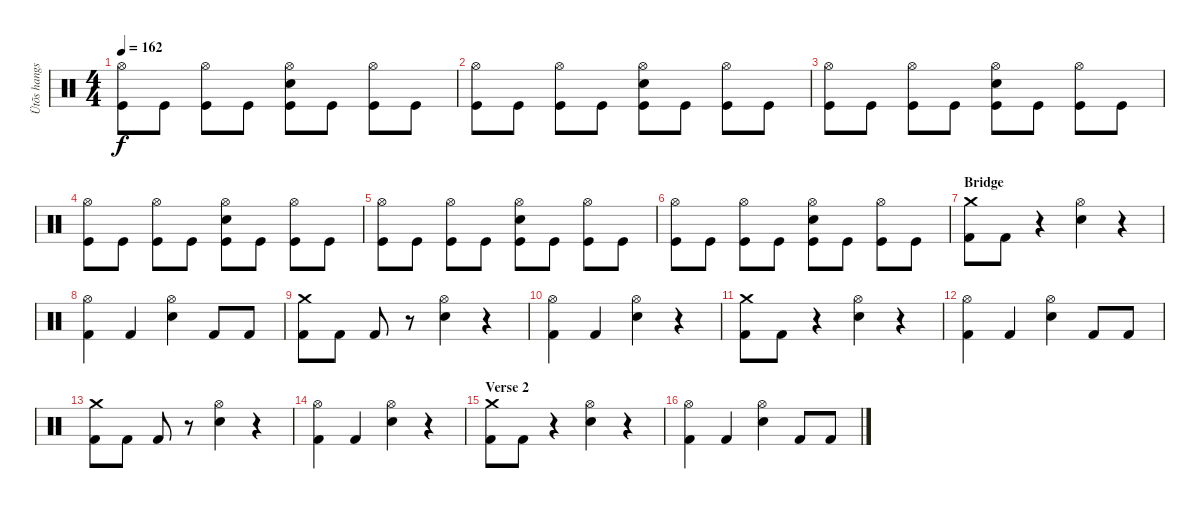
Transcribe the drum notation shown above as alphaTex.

\track ("Ütõs hangszer" "Ütõs hangs") {instrument percussion}
\staff {score}
\articulation defaults
\ts (4 4)
\tempo 162
\clef neutral
\ks c
("Hi-Hat (open)" "Kick (hit)").8{dy f} "Kick (hit)".8 ("Hi-Hat (open)" "Kick (hit)").8 "Kick (hit)".8 ("Hi-Hat (open)" "Electric Snare (hit)" "Kick (hit)").8 "Kick (hit)".8 ("Hi-Hat (open)" "Kick (hit)").8 "Kick (hit)".8 |
("Hi-Hat (open)" "Kick (hit)").8 "Kick (hit)".8 ("Hi-Hat (open)" "Kick (hit)").8 "Kick (hit)".8 ("Hi-Hat (open)" "Electric Snare (hit)" "Kick (hit)").8 "Kick (hit)".8 ("Hi-Hat (open)" "Kick (hit)").8 "Kick (hit)".8 |
("Hi-Hat (open)" "Kick (hit)").8 "Kick (hit)".8 ("Hi-Hat (open)" "Kick (hit)").8 "Kick (hit)".8 ("Hi-Hat (open)" "Electric Snare (hit)" "Kick (hit)").8 "Kick (hit)".8 ("Hi-Hat (open)" "Kick (hit)").8 "Kick (hit)".8 |
("Hi-Hat (open)" "Kick (hit)").8 "Kick (hit)".8 ("Hi-Hat (open)" "Kick (hit)").8 "Kick (hit)".8 ("Hi-Hat (open)" "Electric Snare (hit)" "Kick (hit)").8 "Kick (hit)".8 ("Hi-Hat (open)" "Kick (hit)").8 "Kick (hit)".8 |
("Hi-Hat (open)" "Kick (hit)").8 "Kick (hit)".8 ("Hi-Hat (open)" "Kick (hit)").8 "Kick (hit)".8 ("Hi-Hat (open)" "Electric Snare (hit)" "Kick (hit)").8 "Kick (hit)".8 ("Hi-Hat (open)" "Kick (hit)").8 "Kick (hit)".8 |
("Hi-Hat (open)" "Kick (hit)").8 "Kick (hit)".8 ("Hi-Hat (open)" "Kick (hit)").8 "Kick (hit)".8 ("Hi-Hat (open)" "Electric Snare (hit)" "Kick (hit)").8 "Kick (hit)".8 ("Hi-Hat (open)" "Kick (hit)").8 "Kick (hit)".8 |
\section ("" "Bridge")
("Crash medium (hit)" "Kick (hit) 2").8 "Kick (hit) 2".8 r.4 ("Hi-Hat (open)" "Electric Snare (hit)").4 r.4 |
("Hi-Hat (open)" "Kick (hit) 2").4 "Kick (hit) 2".4 ("Hi-Hat (open)" "Electric Snare (hit)").4 "Kick (hit) 2".8 "Kick (hit) 2".8 |
("Crash medium (hit)" "Kick (hit) 2").8 "Kick (hit) 2".8 "Kick (hit) 2".8 r.8 ("Hi-Hat (open)" "Electric Snare (hit)").4 r.4 |
("Hi-Hat (open)" "Kick (hit) 2").4 "Kick (hit) 2".4 ("Hi-Hat (open)" "Electric Snare (hit)").4 r.4 |
("Crash medium (hit)" "Kick (hit) 2").8 "Kick (hit) 2".8 r.4 ("Hi-Hat (open)" "Electric Snare (hit)").4 r.4 |
("Hi-Hat (open)" "Kick (hit) 2").4 "Kick (hit) 2".4 ("Hi-Hat (open)" "Electric Snare (hit)").4 "Kick (hit) 2".8 "Kick (hit) 2".8 |
("Crash medium (hit)" "Kick (hit) 2").8 "Kick (hit) 2".8 "Kick (hit) 2".8 r.8 ("Hi-Hat (open)" "Electric Snare (hit)").4 r.4 |
("Hi-Hat (open)" "Kick (hit) 2").4 "Kick (hit) 2".4 ("Hi-Hat (open)" "Electric Snare (hit)").4 r.4 |
\section ("" "Verse 2")
("Crash medium (hit)" "Kick (hit) 2").8 "Kick (hit) 2".8 r.4 ("Hi-Hat (open)" "Electric Snare (hit)").4 r.4 |
("Hi-Hat (open)" "Kick (hit) 2").4 "Kick (hit) 2".4 ("Hi-Hat (open)" "Electric Snare (hit)").4 "Kick (hit) 2".8 "Kick (hit) 2".8
